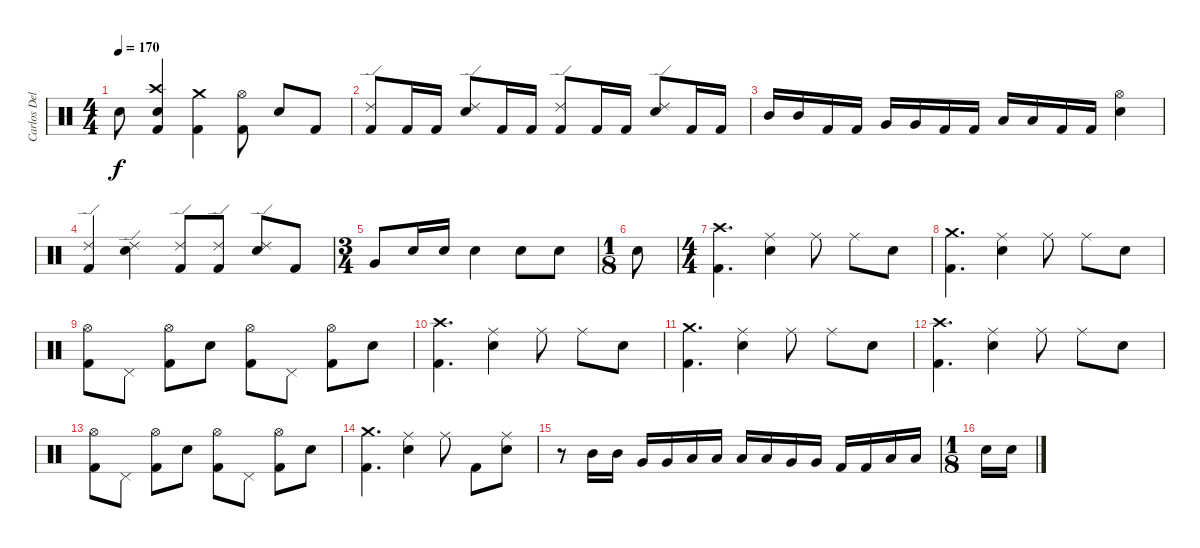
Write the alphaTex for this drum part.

\track ("Carlos Delgado" "Carlos Del") {instrument percussion}
\staff {score}
\articulation defaults
\ts (4 4)
\tempo 170
\clef neutral
\ks c "Electric Snare (hit)".8{dy f}
("Crash high (hit)" "Electric Snare (hit)" "Kick (hit) 2").4 ("Crash medium (hit)" "Kick (hit) 2").4 ("Hi-Hat (open)" "Kick (hit) 2").8 "Electric Snare (hit)".8 "Kick (hit) 2".8 |
("Ride (edge) 2" "Kick (hit) 2").8 "Kick (hit) 2".16 "Kick (hit) 2".16 ("Ride (edge) 2" "Electric Snare (hit)").8 "Kick (hit) 2".16 "Kick (hit) 2".16 ("Ride (edge) 2" "Kick (hit) 2").8 "Kick (hit) 2".16 "Kick (hit) 2".16 ("Ride (edge) 2" "Electric Snare (hit)").8 "Kick (hit) 2".16 "Kick (hit) 2".16 |
"Mid Tom (hit)".16 "Mid Tom (hit)".16 "Kick (hit) 2".16 "Kick (hit) 2".16 "Very Low Tom (hit)".16 "Very Low Tom (hit)".16 "Kick (hit) 2".16 "Kick (hit) 2".16 "Low Tom (hit)".16 "Low Tom (hit)".16 "Kick (hit) 2".16 "Kick (hit) 2".16 ("Hi-Hat (open)" "Electric Snare (hit)").4 |
("Ride (edge) 2" "Kick (hit) 2").4 ("Ride (edge) 2" "Electric Snare (hit)").4 ("Ride (edge) 2" "Kick (hit) 2").8 ("Ride (edge) 2" "Kick (hit) 2").8 ("Ride (edge) 2" "Electric Snare (hit)").8 "Kick (hit) 2".8 |
\ts (3 4)
"Very Low Tom (hit)".8 "Electric Snare (hit)".16 "Electric Snare (hit)".16 "Electric Snare (hit)".4 "Electric Snare (hit)".8 "Electric Snare (hit)".8 |
\ts (1 8)
"Electric Snare (hit)".8 |
\ts (4 4)
("Crash high (hit)" "Kick (hit) 2").4{d} ("Ride (middle)" "Electric Snare (hit)").4 "Ride (middle)".8 "Ride (middle)".8 "Electric Snare (hit)".8 |
("Crash medium (hit)" "Kick (hit) 2").4{d} ("Ride (middle)" "Electric Snare (hit)").4 "Ride (middle)".8 "Ride (middle)".8 "Electric Snare (hit)".8 |
("Hi-Hat (open)" "Kick (hit) 2").8 "Pedal Hi-Hat (hit)".8 ("Hi-Hat (open)" "Kick (hit) 2").8 "Electric Snare (hit)".8 ("Hi-Hat (open)" "Kick (hit) 2").8 "Pedal Hi-Hat (hit)".8 ("Hi-Hat (open)" "Kick (hit) 2").8 "Electric Snare (hit)".8 |
("Crash high (hit)" "Kick (hit) 2").4{d} ("Ride (middle)" "Electric Snare (hit)").4 "Ride (middle)".8 "Ride (middle)".8 "Electric Snare (hit)".8 |
("Crash medium (hit)" "Kick (hit) 2").4{d} ("Ride (middle)" "Electric Snare (hit)").4 "Ride (middle)".8 "Ride (middle)".8 "Electric Snare (hit)".8 |
("Crash high (hit)" "Kick (hit) 2").4{d} ("Ride (middle)" "Electric Snare (hit)").4 "Ride (middle)".8 "Ride (middle)".8 "Electric Snare (hit)".8 |
("Hi-Hat (open)" "Kick (hit) 2").8 "Pedal Hi-Hat (hit)".8 ("Hi-Hat (open)" "Kick (hit) 2").8 "Electric Snare (hit)".8 ("Hi-Hat (open)" "Kick (hit) 2").8 "Pedal Hi-Hat (hit)".8 ("Hi-Hat (open)" "Kick (hit) 2").8 "Electric Snare (hit)".8 |
("Crash medium (hit)" "Kick (hit) 2").4{d} ("Ride (middle)" "Electric Snare (hit)").4 "Ride (middle)".8 "Kick (hit) 2".8 ("Ride (middle)" "Electric Snare (hit)").8 |
r.8 "Mid Tom (hit)".16 "Mid Tom (hit)".16 "Very Low Tom (hit)".16 "Very Low Tom (hit)".16 "Low Tom (hit)".16 "Low Tom (hit)".16 "Low Floor Tom (hit)".16 "Low Floor Tom (hit)".16 "Very Low Tom (hit)".16 "Very Low Tom (hit)".16 "Kick (hit) 2".16 "Kick (hit) 2".16 "Low Floor Tom (hit)".16 "Low Floor Tom (hit)".16 |
\ts (1 8)
"Electric Snare (hit)".16 "Electric Snare (hit)".16
